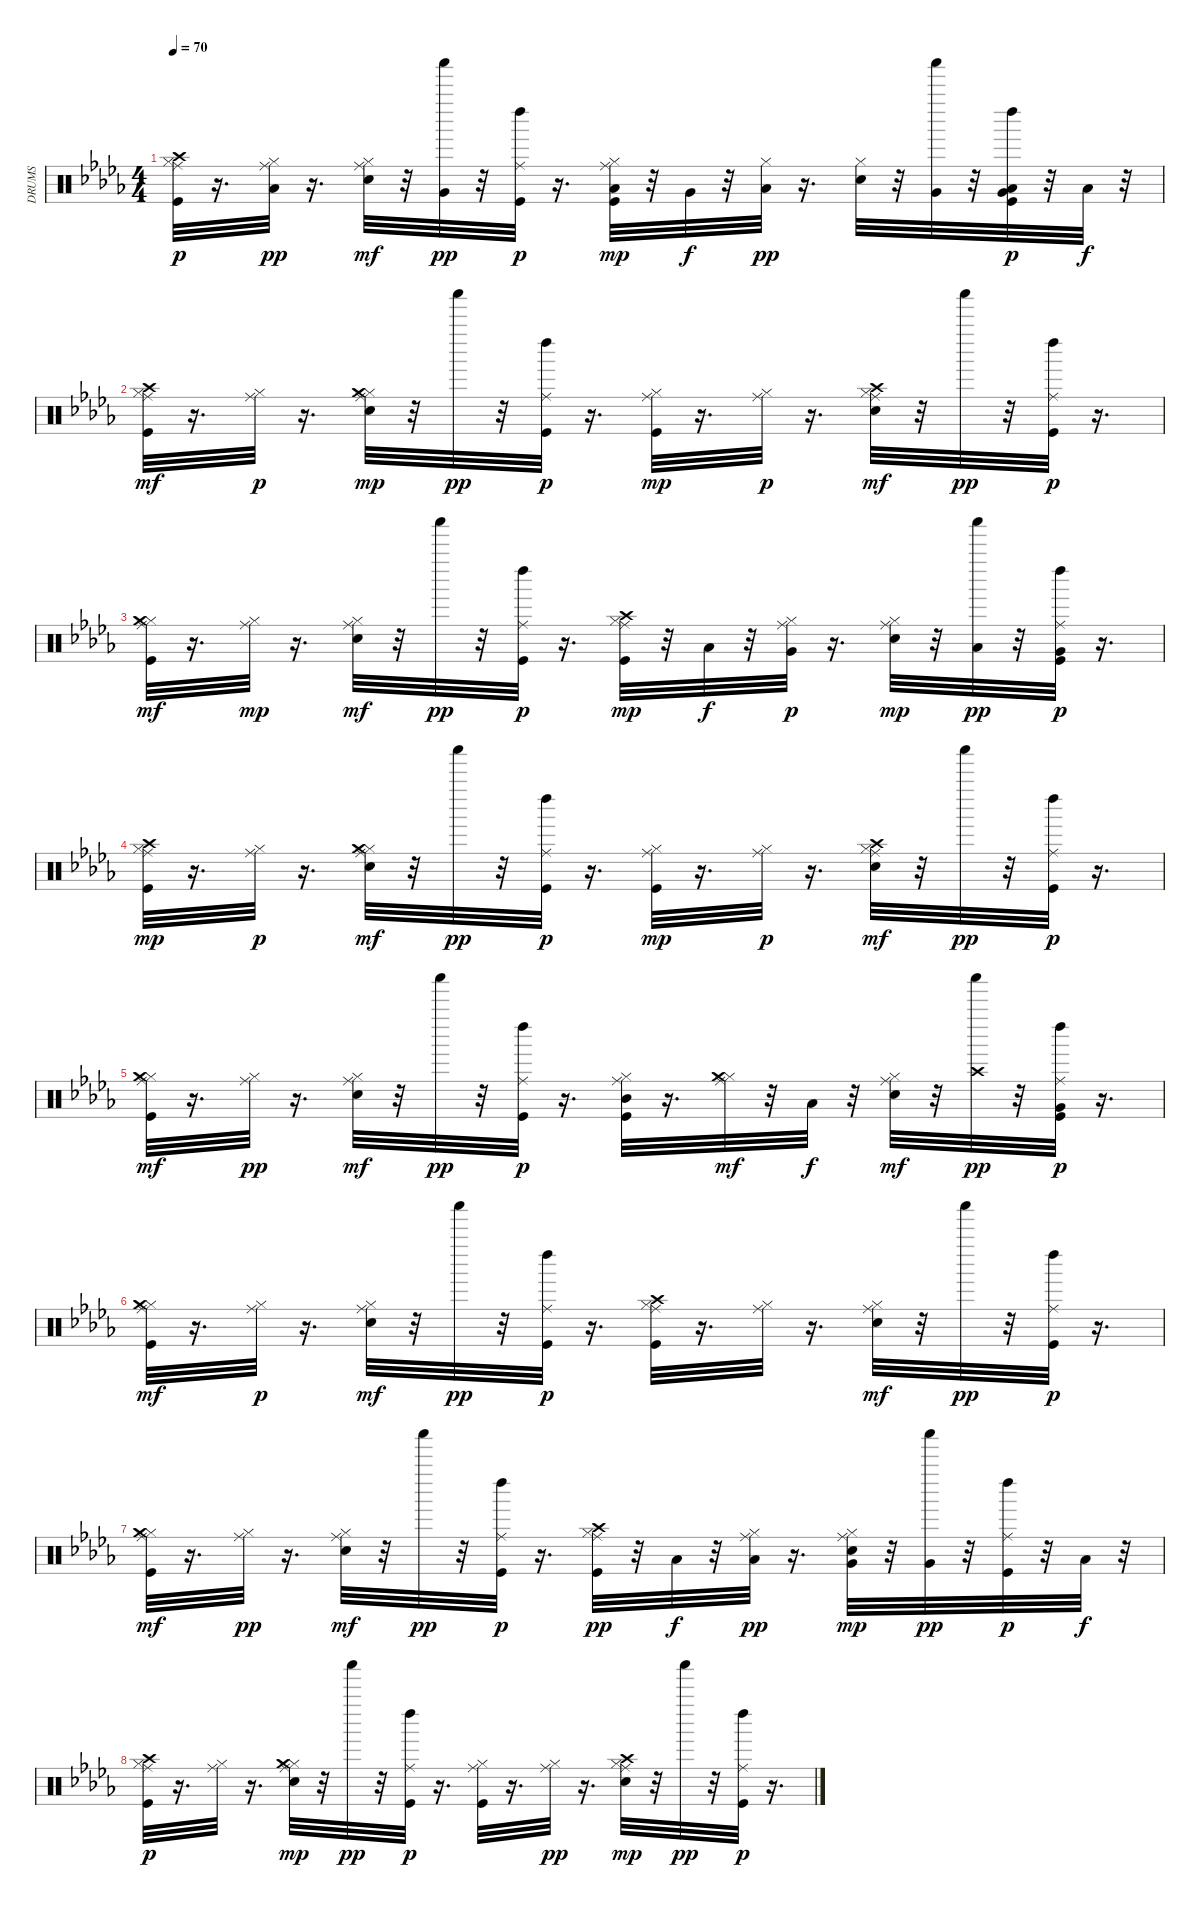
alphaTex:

\track ("DRUMS" "DRUMS") {instrument percussion}
\staff {score}
\articulation defaults
\ts (4 4)
\tempo 70
\clef neutral
\ks bbminor
("Kick (hit)" "Hi-Hat (closed)" "Crash high (hit)" "Ride (middle)").32{dy p} r.16{d} ("Hi-Hat (closed)" "Low Tom (hit)" "Ride (middle)").32{dy pp} r.16{d} ("Electric Snare (hit)" "Hi-Hat (closed)" "Ride (middle)").32{dy mf} r.32 ("Very Low Tom (hit)" "Shaker (hit)").32{dy pp} r.32 ("Kick (hit)" "Ride (middle)" "Left Maraca (hit)").32{dy p} r.16{d} ("Kick (hit)" "Hi-Hat (closed)" "Low Tom (hit)" "Ride (middle)").32{dy mp} r.32 "Very Low Tom (hit)".32{dy f} r.32 ("Hi-Hat (closed)" "Low Tom (hit)").32{dy pp} r.16{d} ("Electric Snare (hit)" "Hi-Hat (closed)").32 r.32 ("Very Low Tom (hit)" "Shaker (hit)").32 r.32 ("Kick (hit)" "Very Low Tom (hit)" "Low Tom (hit)" "Left Maraca (hit)").32{dy p} r.32 "Low Tom (hit)".32{dy f} r.32 |
("Kick (hit)" "Hi-Hat (closed)" "Crash high (hit)" "Ride (middle)").32{dy mf} r.16{d} ("Hi-Hat (closed)" "Ride (middle)").32{dy p} r.16{d} ("Electric Snare (hit)" "Hi-Hat (closed)" "Ride (middle)" "Crash medium (hit)").32{dy mp} r.32 "Shaker (hit)".32{dy pp} r.32 ("Kick (hit)" "Ride (middle)" "Left Maraca (hit)").32{dy p} r.16{d} ("Kick (hit)" "Hi-Hat (closed)" "Ride (middle)").32{dy mp} r.16{d} ("Hi-Hat (closed)" "Ride (middle)").32{dy p} r.16{d} ("Electric Snare (hit)" "Hi-Hat (closed)" "Crash high (hit)" "Ride (middle)").32{dy mf} r.32 "Shaker (hit)".32{dy pp} r.32 ("Kick (hit)" "Ride (middle)" "Left Maraca (hit)").32{dy p} r.16{d} |
("Kick (hit)" "Hi-Hat (closed)" "Ride (middle)" "Crash medium (hit)").32{dy mf} r.16{d} ("Hi-Hat (closed)" "Ride (middle)").32{dy mp} r.16{d} ("Electric Snare (hit)" "Hi-Hat (closed)" "Ride (middle)").32{dy mf} r.32 "Shaker (hit)".32{dy pp} r.32 ("Kick (hit)" "Ride (middle)" "Left Maraca (hit)").32{dy p} r.16{d} ("Kick (hit)" "Hi-Hat (closed)" "Crash high (hit)" "Ride (middle)").32{dy mp} r.32 "Low Tom (hit)".32{dy f} r.32 ("Hi-Hat (closed)" "Very Low Tom (hit)" "Ride (middle)").32{dy p} r.16{d} ("Electric Snare (hit)" "Hi-Hat (closed)" "Ride (middle)").32{dy mp} r.32 ("Low Tom (hit)" "Shaker (hit)").32{dy pp} r.32 ("Kick (hit)" "Very Low Tom (hit)" "Ride (middle)" "Left Maraca (hit)").32{dy p} r.16{d} |
("Kick (hit)" "Hi-Hat (closed)" "Crash high (hit)" "Ride (middle)").32{dy mp} r.16{d} ("Hi-Hat (closed)" "Ride (middle)").32{dy p} r.16{d} ("Electric Snare (hit)" "Hi-Hat (closed)" "Ride (middle)" "Crash medium (hit)").32{dy mf} r.32 "Shaker (hit)".32{dy pp} r.32 ("Kick (hit)" "Ride (middle)" "Left Maraca (hit)").32{dy p} r.16{d} ("Kick (hit)" "Hi-Hat (closed)" "Ride (middle)").32{dy mp} r.16{d} ("Hi-Hat (closed)" "Ride (middle)").32{dy p} r.16{d} ("Electric Snare (hit)" "Hi-Hat (closed)" "Crash high (hit)" "Ride (middle)").32{dy mf} r.32 "Shaker (hit)".32{dy pp} r.32 ("Kick (hit)" "Ride (middle)" "Left Maraca (hit)").32{dy p} r.16{d} |
("Kick (hit)" "Hi-Hat (closed)" "Ride (middle)" "Crash medium (hit)").32{dy mf} r.16{d} ("Hi-Hat (closed)" "Ride (middle)").32{dy pp} r.16{d} ("Electric Snare (hit)" "Hi-Hat (closed)" "Ride (middle)").32{dy mf} r.32 "Shaker (hit)".32{dy pp} r.32 ("Kick (hit)" "Ride (middle)" "Left Maraca (hit)").32{dy p} r.16{d} ("Kick (hit)" "Hi-Hat (closed)" "Mid Tom (hit)" "Ride (middle)").32 r.16{d} ("Hi-Hat (closed)" "Ride (middle)" "Crash medium (hit)").32{dy mf} r.32 "Low Tom (hit)".32{dy f} r.32 ("Electric Snare (hit)" "Hi-Hat (closed)" "Ride (middle)").32{dy mf} r.32 ("Crash high (hit)" "Shaker (hit)").32{dy pp} r.32 ("Kick (hit)" "Very Low Tom (hit)" "Ride (middle)" "Left Maraca (hit)").32{dy p} r.16{d} |
("Kick (hit)" "Hi-Hat (closed)" "Ride (middle)" "Crash medium (hit)").32{dy mf} r.16{d} ("Hi-Hat (closed)" "Ride (middle)").32{dy p} r.16{d} ("Electric Snare (hit)" "Hi-Hat (closed)" "Ride (middle)").32{dy mf} r.32 "Shaker (hit)".32{dy pp} r.32 ("Kick (hit)" "Ride (middle)" "Left Maraca (hit)").32{dy p} r.16{d} ("Kick (hit)" "Hi-Hat (closed)" "Crash high (hit)" "Ride (middle)").32 r.16{d} ("Hi-Hat (closed)" "Ride (middle)").32 r.16{d} ("Electric Snare (hit)" "Hi-Hat (closed)" "Ride (middle)").32{dy mf} r.32 "Shaker (hit)".32{dy pp} r.32 ("Kick (hit)" "Ride (middle)" "Left Maraca (hit)").32{dy p} r.16{d} |
("Kick (hit)" "Hi-Hat (closed)" "Ride (middle)" "Crash medium (hit)").32{dy mf} r.16{d} ("Hi-Hat (closed)" "Ride (middle)").32{dy pp} r.16{d} ("Electric Snare (hit)" "Hi-Hat (closed)" "Ride (middle)").32{dy mf} r.32 "Shaker (hit)".32{dy pp} r.32 ("Kick (hit)" "Ride (middle)" "Left Maraca (hit)").32{dy p} r.16{d} ("Kick (hit)" "Hi-Hat (closed)" "Crash high (hit)" "Ride (middle)").32{dy pp} r.32 "Low Tom (hit)".32{dy f} r.32 ("Hi-Hat (closed)" "Low Tom (hit)" "Ride (middle)").32{dy pp} r.16{d} ("Electric Snare (hit)" "Hi-Hat (closed)" "Very Low Tom (hit)" "Ride (middle)").32{dy mp} r.32 ("Very Low Tom (hit)" "Shaker (hit)").32{dy pp} r.32 ("Kick (hit)" "Ride (middle)" "Left Maraca (hit)").32{dy p} r.32 "Low Tom (hit)".32{dy f} r.32 |
("Kick (hit)" "Hi-Hat (closed)" "Crash high (hit)" "Ride (middle)").32{dy p} r.16{d} ("Hi-Hat (closed)" "Ride (middle)").32 r.16{d} ("Electric Snare (hit)" "Hi-Hat (closed)" "Ride (middle)" "Crash medium (hit)").32{dy mp} r.32 "Shaker (hit)".32{dy pp} r.32 ("Kick (hit)" "Ride (middle)" "Left Maraca (hit)").32{dy p} r.16{d} ("Kick (hit)" "Hi-Hat (closed)" "Ride (middle)").32 r.16{d} ("Hi-Hat (closed)" "Ride (middle)").32{dy pp} r.16{d} ("Electric Snare (hit)" "Hi-Hat (closed)" "Crash high (hit)" "Ride (middle)").32{dy mp} r.32 "Shaker (hit)".32{dy pp} r.32 ("Kick (hit)" "Ride (middle)" "Left Maraca (hit)").32{dy p} r.16{d}
